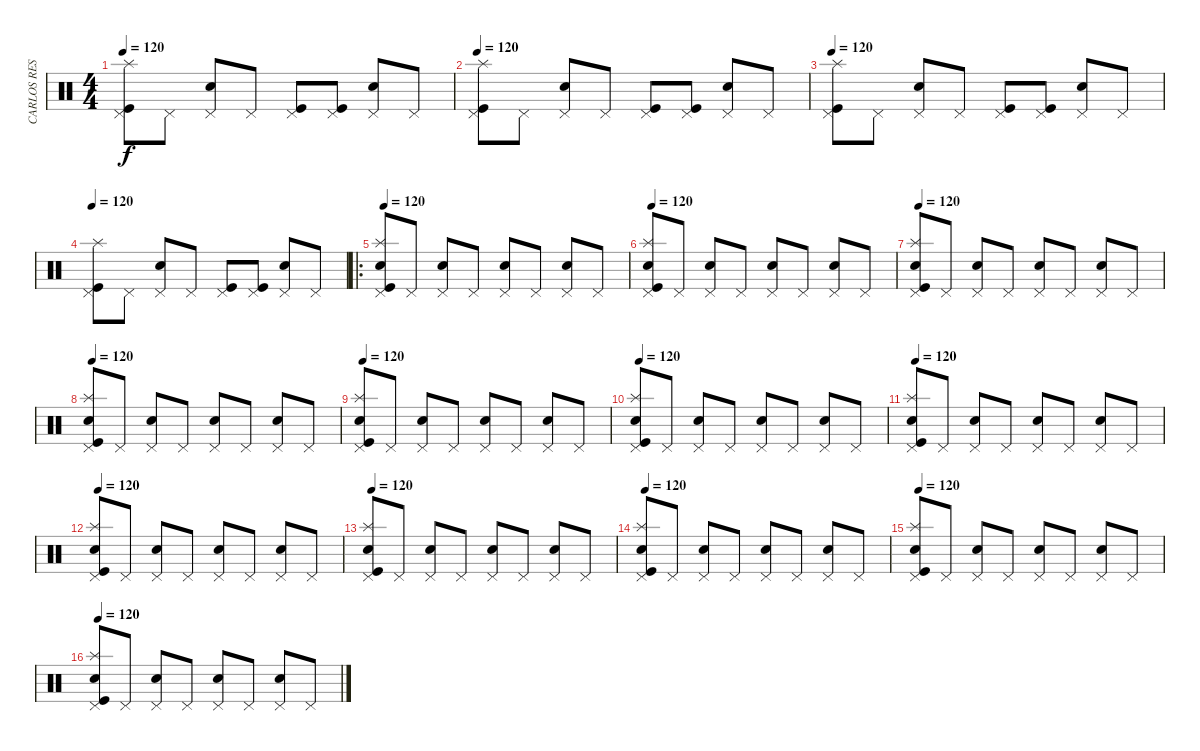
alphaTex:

\track ("CARLOS RESTREPO DARK BATERIA" "CARLOS RES") {instrument percussion}
\staff {score}
\articulation defaults
\ts (4 4)
\tempo 120
\clef neutral
\ks c
("Pedal Hi-Hat (hit)" "Kick (hit)" "Splash (hit)").8{dy f} "Pedal Hi-Hat (hit)".8 ("Pedal Hi-Hat (hit)" "Snare (hit) 2").8 "Pedal Hi-Hat (hit)".8 ("Pedal Hi-Hat (hit)" "Kick (hit)").8 ("Pedal Hi-Hat (hit)" "Kick (hit)").8 ("Pedal Hi-Hat (hit)" "Snare (hit) 2").8 "Pedal Hi-Hat (hit)".8 |
\tempo 120
("Pedal Hi-Hat (hit)" "Kick (hit)" "Splash (hit)").8 "Pedal Hi-Hat (hit)".8 ("Pedal Hi-Hat (hit)" "Snare (hit) 2").8 "Pedal Hi-Hat (hit)".8 ("Pedal Hi-Hat (hit)" "Kick (hit)").8 ("Pedal Hi-Hat (hit)" "Kick (hit)").8 ("Pedal Hi-Hat (hit)" "Snare (hit) 2").8 "Pedal Hi-Hat (hit)".8 |
\tempo 120
("Pedal Hi-Hat (hit)" "Kick (hit)" "Splash (hit)").8 "Pedal Hi-Hat (hit)".8 ("Pedal Hi-Hat (hit)" "Snare (hit) 2").8 "Pedal Hi-Hat (hit)".8 ("Pedal Hi-Hat (hit)" "Kick (hit)").8 ("Pedal Hi-Hat (hit)" "Kick (hit)").8 ("Pedal Hi-Hat (hit)" "Snare (hit) 2").8 "Pedal Hi-Hat (hit)".8 |
\tempo 120
("Pedal Hi-Hat (hit)" "Kick (hit)" "Splash (hit)").8 "Pedal Hi-Hat (hit)".8 ("Pedal Hi-Hat (hit)" "Snare (hit) 2").8 "Pedal Hi-Hat (hit)".8 ("Pedal Hi-Hat (hit)" "Kick (hit)").8 ("Pedal Hi-Hat (hit)" "Kick (hit)").8 ("Pedal Hi-Hat (hit)" "Snare (hit) 2").8 "Pedal Hi-Hat (hit)".8 |
\ro
\tempo 120
("Pedal Hi-Hat (hit)" "Kick (hit)" "Splash (hit)" "Snare (hit) 2").8 "Pedal Hi-Hat (hit)".8 ("Pedal Hi-Hat (hit)" "Snare (hit) 2").8 "Pedal Hi-Hat (hit)".8 ("Pedal Hi-Hat (hit)" "Snare (hit) 2").8 "Pedal Hi-Hat (hit)".8 ("Pedal Hi-Hat (hit)" "Snare (hit) 2").8 "Pedal Hi-Hat (hit)".8 |
\tempo 120
("Pedal Hi-Hat (hit)" "Kick (hit)" "Splash (hit)" "Snare (hit) 2").8 "Pedal Hi-Hat (hit)".8 ("Pedal Hi-Hat (hit)" "Snare (hit) 2").8 "Pedal Hi-Hat (hit)".8 ("Pedal Hi-Hat (hit)" "Snare (hit) 2").8 "Pedal Hi-Hat (hit)".8 ("Pedal Hi-Hat (hit)" "Snare (hit) 2").8 "Pedal Hi-Hat (hit)".8 |
\tempo 120
("Pedal Hi-Hat (hit)" "Kick (hit)" "Splash (hit)" "Snare (hit) 2").8 "Pedal Hi-Hat (hit)".8 ("Pedal Hi-Hat (hit)" "Snare (hit) 2").8 "Pedal Hi-Hat (hit)".8 ("Pedal Hi-Hat (hit)" "Snare (hit) 2").8 "Pedal Hi-Hat (hit)".8 ("Pedal Hi-Hat (hit)" "Snare (hit) 2").8 "Pedal Hi-Hat (hit)".8 |
\tempo 120
("Pedal Hi-Hat (hit)" "Kick (hit)" "Splash (hit)" "Snare (hit) 2").8 "Pedal Hi-Hat (hit)".8 ("Pedal Hi-Hat (hit)" "Snare (hit) 2").8 "Pedal Hi-Hat (hit)".8 ("Pedal Hi-Hat (hit)" "Snare (hit) 2").8 "Pedal Hi-Hat (hit)".8 ("Pedal Hi-Hat (hit)" "Snare (hit) 2").8 "Pedal Hi-Hat (hit)".8 |
\tempo 120
("Pedal Hi-Hat (hit)" "Kick (hit)" "Splash (hit)" "Snare (hit) 2").8 "Pedal Hi-Hat (hit)".8 ("Pedal Hi-Hat (hit)" "Snare (hit) 2").8 "Pedal Hi-Hat (hit)".8 ("Pedal Hi-Hat (hit)" "Snare (hit) 2").8 "Pedal Hi-Hat (hit)".8 ("Pedal Hi-Hat (hit)" "Snare (hit) 2").8 "Pedal Hi-Hat (hit)".8 |
\tempo 120
("Pedal Hi-Hat (hit)" "Kick (hit)" "Splash (hit)" "Snare (hit) 2").8 "Pedal Hi-Hat (hit)".8 ("Pedal Hi-Hat (hit)" "Snare (hit) 2").8 "Pedal Hi-Hat (hit)".8 ("Pedal Hi-Hat (hit)" "Snare (hit) 2").8 "Pedal Hi-Hat (hit)".8 ("Pedal Hi-Hat (hit)" "Snare (hit) 2").8 "Pedal Hi-Hat (hit)".8 |
\tempo 120
("Pedal Hi-Hat (hit)" "Kick (hit)" "Splash (hit)" "Snare (hit) 2").8 "Pedal Hi-Hat (hit)".8 ("Pedal Hi-Hat (hit)" "Snare (hit) 2").8 "Pedal Hi-Hat (hit)".8 ("Pedal Hi-Hat (hit)" "Snare (hit) 2").8 "Pedal Hi-Hat (hit)".8 ("Pedal Hi-Hat (hit)" "Snare (hit) 2").8 "Pedal Hi-Hat (hit)".8 |
\tempo 120
("Pedal Hi-Hat (hit)" "Kick (hit)" "Splash (hit)" "Snare (hit) 2").8 "Pedal Hi-Hat (hit)".8 ("Pedal Hi-Hat (hit)" "Snare (hit) 2").8 "Pedal Hi-Hat (hit)".8 ("Pedal Hi-Hat (hit)" "Snare (hit) 2").8 "Pedal Hi-Hat (hit)".8 ("Pedal Hi-Hat (hit)" "Snare (hit) 2").8 "Pedal Hi-Hat (hit)".8 |
\tempo 120
("Pedal Hi-Hat (hit)" "Kick (hit)" "Splash (hit)" "Snare (hit) 2").8 "Pedal Hi-Hat (hit)".8 ("Pedal Hi-Hat (hit)" "Snare (hit) 2").8 "Pedal Hi-Hat (hit)".8 ("Pedal Hi-Hat (hit)" "Snare (hit) 2").8 "Pedal Hi-Hat (hit)".8 ("Pedal Hi-Hat (hit)" "Snare (hit) 2").8 "Pedal Hi-Hat (hit)".8 |
\tempo 120
("Pedal Hi-Hat (hit)" "Kick (hit)" "Splash (hit)" "Snare (hit) 2").8 "Pedal Hi-Hat (hit)".8 ("Pedal Hi-Hat (hit)" "Snare (hit) 2").8 "Pedal Hi-Hat (hit)".8 ("Pedal Hi-Hat (hit)" "Snare (hit) 2").8 "Pedal Hi-Hat (hit)".8 ("Pedal Hi-Hat (hit)" "Snare (hit) 2").8 "Pedal Hi-Hat (hit)".8 |
\tempo 120
("Pedal Hi-Hat (hit)" "Kick (hit)" "Splash (hit)" "Snare (hit) 2").8 "Pedal Hi-Hat (hit)".8 ("Pedal Hi-Hat (hit)" "Snare (hit) 2").8 "Pedal Hi-Hat (hit)".8 ("Pedal Hi-Hat (hit)" "Snare (hit) 2").8 "Pedal Hi-Hat (hit)".8 ("Pedal Hi-Hat (hit)" "Snare (hit) 2").8 "Pedal Hi-Hat (hit)".8 |
\tempo 120
("Pedal Hi-Hat (hit)" "Kick (hit)" "Splash (hit)" "Snare (hit) 2").8 "Pedal Hi-Hat (hit)".8 ("Pedal Hi-Hat (hit)" "Snare (hit) 2").8 "Pedal Hi-Hat (hit)".8 ("Pedal Hi-Hat (hit)" "Snare (hit) 2").8 "Pedal Hi-Hat (hit)".8 ("Pedal Hi-Hat (hit)" "Snare (hit) 2").8 "Pedal Hi-Hat (hit)".8
